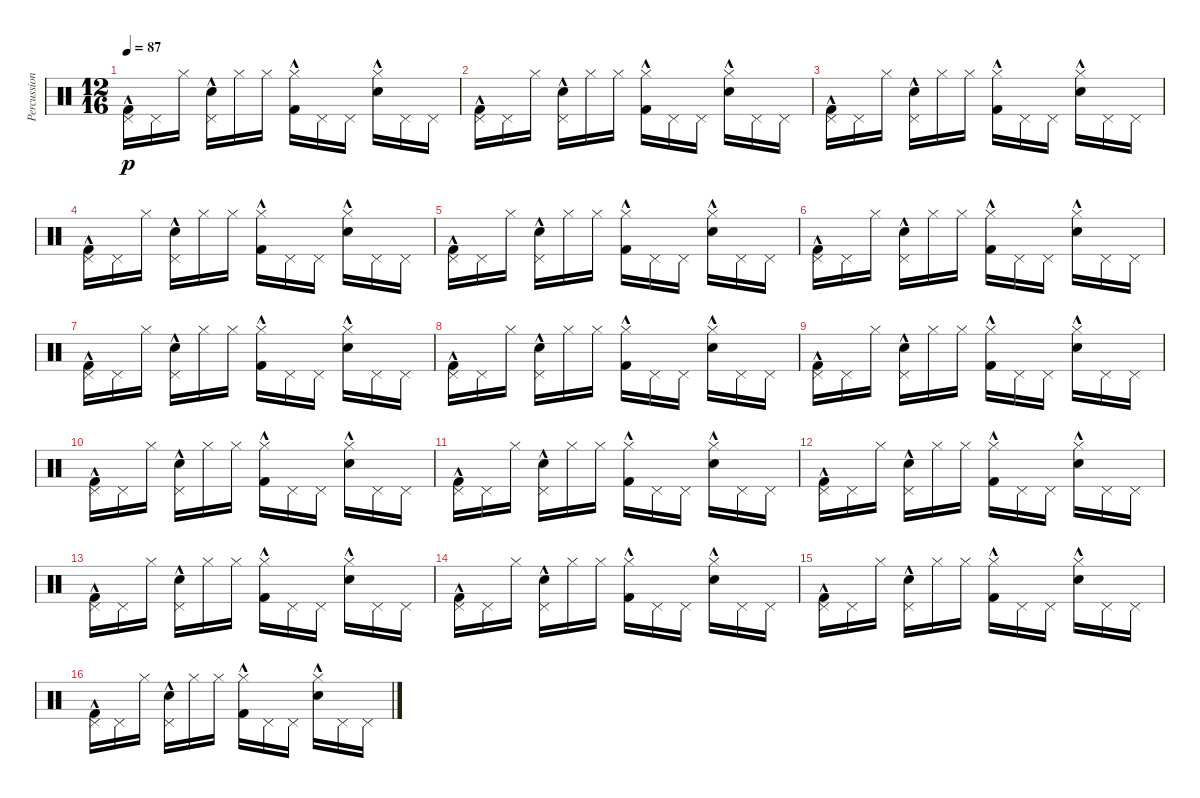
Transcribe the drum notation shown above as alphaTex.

\track ("Percussion" "Percussion") {instrument percussion}
\staff {score}
\articulation defaults
\ts (12 16)
\tempo 87
\clef neutral
\ks c
("Kick (hit) 2"{hac} "Pedal Hi-Hat (hit)").16{dy p} "Pedal Hi-Hat (hit)".16 "Hi-Hat (closed)".16 ("Hand Clap (hit)"{hac} "Pedal Hi-Hat (hit)").16 "Hi-Hat (closed)".16 "Hi-Hat (closed)".16 ("Kick (hit) 2"{hac} "Hi-Hat (closed)").16 "Pedal Hi-Hat (hit)".16 "Pedal Hi-Hat (hit)".16 ("Hand Clap (hit)"{hac} "Hi-Hat (closed)").16 "Pedal Hi-Hat (hit)".16 "Pedal Hi-Hat (hit)".16 |
("Kick (hit) 2"{hac} "Pedal Hi-Hat (hit)").16 "Pedal Hi-Hat (hit)".16 "Hi-Hat (closed)".16 ("Hand Clap (hit)"{hac} "Pedal Hi-Hat (hit)").16 "Hi-Hat (closed)".16 "Hi-Hat (closed)".16 ("Kick (hit) 2"{hac} "Hi-Hat (closed)").16 "Pedal Hi-Hat (hit)".16 "Pedal Hi-Hat (hit)".16 ("Hand Clap (hit)"{hac} "Hi-Hat (closed)").16 "Pedal Hi-Hat (hit)".16 "Pedal Hi-Hat (hit)".16 |
("Kick (hit) 2"{hac} "Pedal Hi-Hat (hit)").16 "Pedal Hi-Hat (hit)".16 "Hi-Hat (closed)".16 ("Hand Clap (hit)"{hac} "Pedal Hi-Hat (hit)").16 "Hi-Hat (closed)".16 "Hi-Hat (closed)".16 ("Kick (hit) 2"{hac} "Hi-Hat (closed)").16 "Pedal Hi-Hat (hit)".16 "Pedal Hi-Hat (hit)".16 ("Hand Clap (hit)"{hac} "Hi-Hat (closed)").16 "Pedal Hi-Hat (hit)".16 "Pedal Hi-Hat (hit)".16 |
("Kick (hit) 2"{hac} "Pedal Hi-Hat (hit)").16 "Pedal Hi-Hat (hit)".16 "Hi-Hat (closed)".16 ("Hand Clap (hit)"{hac} "Pedal Hi-Hat (hit)").16 "Hi-Hat (closed)".16 "Hi-Hat (closed)".16 ("Kick (hit) 2"{hac} "Hi-Hat (closed)").16 "Pedal Hi-Hat (hit)".16 "Pedal Hi-Hat (hit)".16 ("Hand Clap (hit)"{hac} "Hi-Hat (closed)").16 "Pedal Hi-Hat (hit)".16 "Pedal Hi-Hat (hit)".16 |
("Kick (hit) 2"{hac} "Pedal Hi-Hat (hit)").16 "Pedal Hi-Hat (hit)".16 "Hi-Hat (closed)".16 ("Hand Clap (hit)"{hac} "Pedal Hi-Hat (hit)").16 "Hi-Hat (closed)".16 "Hi-Hat (closed)".16 ("Kick (hit) 2"{hac} "Hi-Hat (closed)").16 "Pedal Hi-Hat (hit)".16 "Pedal Hi-Hat (hit)".16 ("Hand Clap (hit)"{hac} "Hi-Hat (closed)").16 "Pedal Hi-Hat (hit)".16 "Pedal Hi-Hat (hit)".16 |
("Kick (hit) 2"{hac} "Pedal Hi-Hat (hit)").16 "Pedal Hi-Hat (hit)".16 "Hi-Hat (closed)".16 ("Hand Clap (hit)"{hac} "Pedal Hi-Hat (hit)").16 "Hi-Hat (closed)".16 "Hi-Hat (closed)".16 ("Kick (hit) 2"{hac} "Hi-Hat (closed)").16 "Pedal Hi-Hat (hit)".16 "Pedal Hi-Hat (hit)".16 ("Hand Clap (hit)"{hac} "Hi-Hat (closed)").16 "Pedal Hi-Hat (hit)".16 "Pedal Hi-Hat (hit)".16 |
("Kick (hit) 2"{hac} "Pedal Hi-Hat (hit)").16 "Pedal Hi-Hat (hit)".16 "Hi-Hat (closed)".16 ("Hand Clap (hit)"{hac} "Pedal Hi-Hat (hit)").16 "Hi-Hat (closed)".16 "Hi-Hat (closed)".16 ("Kick (hit) 2"{hac} "Hi-Hat (closed)").16 "Pedal Hi-Hat (hit)".16 "Pedal Hi-Hat (hit)".16 ("Hand Clap (hit)"{hac} "Hi-Hat (closed)").16 "Pedal Hi-Hat (hit)".16 "Pedal Hi-Hat (hit)".16 |
("Kick (hit) 2"{hac} "Pedal Hi-Hat (hit)").16 "Pedal Hi-Hat (hit)".16 "Hi-Hat (closed)".16 ("Hand Clap (hit)"{hac} "Pedal Hi-Hat (hit)").16 "Hi-Hat (closed)".16 "Hi-Hat (closed)".16 ("Kick (hit) 2"{hac} "Hi-Hat (closed)").16 "Pedal Hi-Hat (hit)".16 "Pedal Hi-Hat (hit)".16 ("Hand Clap (hit)"{hac} "Hi-Hat (closed)").16 "Pedal Hi-Hat (hit)".16 "Pedal Hi-Hat (hit)".16 |
("Kick (hit) 2"{hac} "Pedal Hi-Hat (hit)").16 "Pedal Hi-Hat (hit)".16 "Hi-Hat (closed)".16 ("Hand Clap (hit)"{hac} "Pedal Hi-Hat (hit)").16 "Hi-Hat (closed)".16 "Hi-Hat (closed)".16 ("Kick (hit) 2"{hac} "Hi-Hat (closed)").16 "Pedal Hi-Hat (hit)".16 "Pedal Hi-Hat (hit)".16 ("Hand Clap (hit)"{hac} "Hi-Hat (closed)").16 "Pedal Hi-Hat (hit)".16 "Pedal Hi-Hat (hit)".16 |
("Kick (hit) 2"{hac} "Pedal Hi-Hat (hit)").16 "Pedal Hi-Hat (hit)".16 "Hi-Hat (closed)".16 ("Hand Clap (hit)"{hac} "Pedal Hi-Hat (hit)").16 "Hi-Hat (closed)".16 "Hi-Hat (closed)".16 ("Kick (hit) 2"{hac} "Hi-Hat (closed)").16 "Pedal Hi-Hat (hit)".16 "Pedal Hi-Hat (hit)".16 ("Hand Clap (hit)"{hac} "Hi-Hat (closed)").16 "Pedal Hi-Hat (hit)".16 "Pedal Hi-Hat (hit)".16 |
("Kick (hit) 2"{hac} "Pedal Hi-Hat (hit)").16 "Pedal Hi-Hat (hit)".16 "Hi-Hat (closed)".16 ("Hand Clap (hit)"{hac} "Pedal Hi-Hat (hit)").16 "Hi-Hat (closed)".16 "Hi-Hat (closed)".16 ("Kick (hit) 2"{hac} "Hi-Hat (closed)").16 "Pedal Hi-Hat (hit)".16 "Pedal Hi-Hat (hit)".16 ("Hand Clap (hit)"{hac} "Hi-Hat (closed)").16 "Pedal Hi-Hat (hit)".16 "Pedal Hi-Hat (hit)".16 |
("Kick (hit) 2"{hac} "Pedal Hi-Hat (hit)").16 "Pedal Hi-Hat (hit)".16 "Hi-Hat (closed)".16 ("Hand Clap (hit)"{hac} "Pedal Hi-Hat (hit)").16 "Hi-Hat (closed)".16 "Hi-Hat (closed)".16 ("Kick (hit) 2"{hac} "Hi-Hat (closed)").16 "Pedal Hi-Hat (hit)".16 "Pedal Hi-Hat (hit)".16 ("Hand Clap (hit)"{hac} "Hi-Hat (closed)").16 "Pedal Hi-Hat (hit)".16 "Pedal Hi-Hat (hit)".16 |
("Kick (hit) 2"{hac} "Pedal Hi-Hat (hit)").16 "Pedal Hi-Hat (hit)".16 "Hi-Hat (closed)".16 ("Hand Clap (hit)"{hac} "Pedal Hi-Hat (hit)").16 "Hi-Hat (closed)".16 "Hi-Hat (closed)".16 ("Kick (hit) 2"{hac} "Hi-Hat (closed)").16 "Pedal Hi-Hat (hit)".16 "Pedal Hi-Hat (hit)".16 ("Hand Clap (hit)"{hac} "Hi-Hat (closed)").16 "Pedal Hi-Hat (hit)".16 "Pedal Hi-Hat (hit)".16 |
("Kick (hit) 2"{hac} "Pedal Hi-Hat (hit)").16 "Pedal Hi-Hat (hit)".16 "Hi-Hat (closed)".16 ("Hand Clap (hit)"{hac} "Pedal Hi-Hat (hit)").16 "Hi-Hat (closed)".16 "Hi-Hat (closed)".16 ("Kick (hit) 2"{hac} "Hi-Hat (closed)").16 "Pedal Hi-Hat (hit)".16 "Pedal Hi-Hat (hit)".16 ("Hand Clap (hit)"{hac} "Hi-Hat (closed)").16 "Pedal Hi-Hat (hit)".16 "Pedal Hi-Hat (hit)".16 |
("Kick (hit) 2"{hac} "Pedal Hi-Hat (hit)").16 "Pedal Hi-Hat (hit)".16 "Hi-Hat (closed)".16 ("Hand Clap (hit)"{hac} "Pedal Hi-Hat (hit)").16 "Hi-Hat (closed)".16 "Hi-Hat (closed)".16 ("Kick (hit) 2"{hac} "Hi-Hat (closed)").16 "Pedal Hi-Hat (hit)".16 "Pedal Hi-Hat (hit)".16 ("Hand Clap (hit)"{hac} "Hi-Hat (closed)").16 "Pedal Hi-Hat (hit)".16 "Pedal Hi-Hat (hit)".16 |
("Kick (hit) 2"{hac} "Pedal Hi-Hat (hit)").16 "Pedal Hi-Hat (hit)".16 "Hi-Hat (closed)".16 ("Hand Clap (hit)"{hac} "Pedal Hi-Hat (hit)").16 "Hi-Hat (closed)".16 "Hi-Hat (closed)".16 ("Kick (hit) 2"{hac} "Hi-Hat (closed)").16 "Pedal Hi-Hat (hit)".16 "Pedal Hi-Hat (hit)".16 ("Hand Clap (hit)"{hac} "Hi-Hat (closed)").16 "Pedal Hi-Hat (hit)".16 "Pedal Hi-Hat (hit)".16
